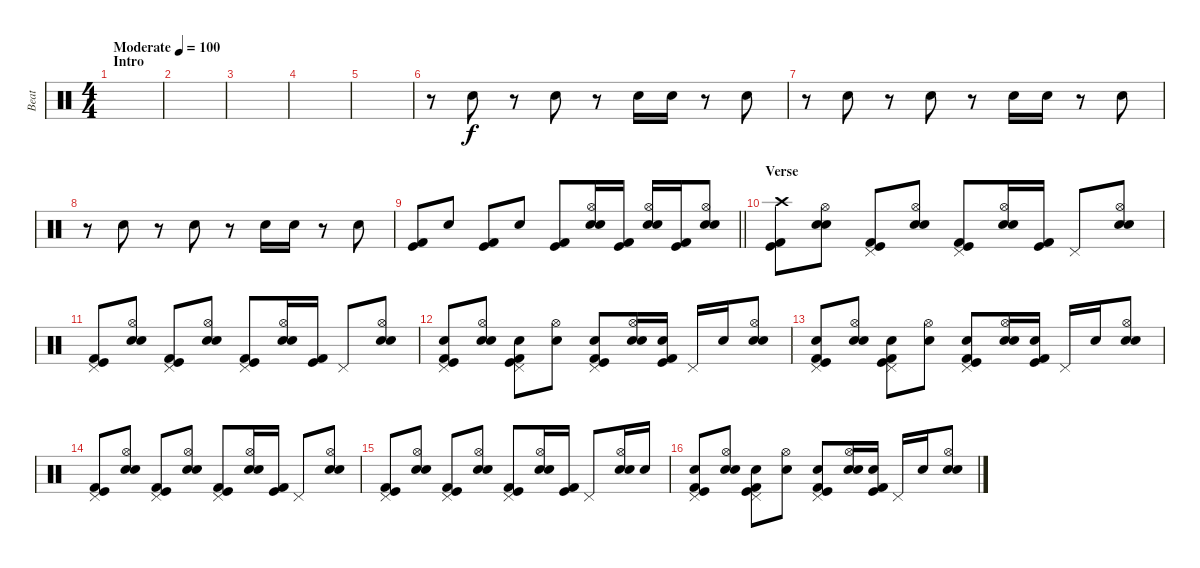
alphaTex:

\track ("Beat" "Beat") {instrument percussion}
\staff {score}
\articulation defaults
\ts (4 4)
\section ("" "Intro")
\tempo (100 "Moderate")
\clef neutral
\ks c
|
|
|
|
|
r.8 "Hand Clap (hit)".8 r.8 "Hand Clap (hit)".8 r.8 "Hand Clap (hit)".16 "Hand Clap (hit)".16 r.8 "Hand Clap (hit)".8 |
r.8 "Hand Clap (hit)".8 r.8 "Hand Clap (hit)".8 r.8 "Hand Clap (hit)".16 "Hand Clap (hit)".16 r.8 "Hand Clap (hit)".8 |
r.8 "Hand Clap (hit)".8 r.8 "Hand Clap (hit)".8 r.8 "Hand Clap (hit)".16 "Hand Clap (hit)".16 r.8 "Hand Clap (hit)".8 |
\barLineRight lightlight
("Kick (hit)" "Kick (hit) 2").8 "Hand Clap (hit)".8 ("Kick (hit)" "Kick (hit) 2").8 "Hand Clap (hit)".8 ("Kick (hit)" "Kick (hit) 2").8 ("Hi-Hat (open)" "Hand Clap (hit)" "Snare (hit) 2").16 ("Kick (hit)" "Kick (hit) 2").16 ("Hi-Hat (open)" "Hand Clap (hit)" "Snare (hit) 2").16 ("Kick (hit)" "Kick (hit) 2").16 ("Hi-Hat (open)" "Hand Clap (hit)" "Snare (hit) 2").8 |
\section ("" "Verse")
("Crash high (hit)" "Kick (hit)" "Kick (hit) 2").8 ("Hi-Hat (open)" "Hand Clap (hit)" "Snare (hit) 2").8 ("Pedal Hi-Hat (hit)" "Kick (hit)" "Kick (hit) 2").8 ("Hi-Hat (open)" "Hand Clap (hit)" "Snare (hit) 2").8 ("Pedal Hi-Hat (hit)" "Kick (hit)" "Kick (hit) 2").8 ("Hi-Hat (open)" "Hand Clap (hit)" "Snare (hit) 2").16 ("Kick (hit)" "Kick (hit) 2").16 "Pedal Hi-Hat (hit)".8 ("Hi-Hat (open)" "Hand Clap (hit)" "Snare (hit) 2").8 |
("Pedal Hi-Hat (hit)" "Kick (hit)" "Kick (hit) 2").8 ("Hi-Hat (open)" "Hand Clap (hit)" "Snare (hit) 2").8 ("Pedal Hi-Hat (hit)" "Kick (hit)" "Kick (hit) 2").8 ("Hi-Hat (open)" "Hand Clap (hit)" "Snare (hit) 2").8 ("Pedal Hi-Hat (hit)" "Kick (hit)" "Kick (hit) 2").8 ("Hi-Hat (open)" "Hand Clap (hit)" "Snare (hit) 2").16 ("Kick (hit)" "Kick (hit) 2").16 "Pedal Hi-Hat (hit)".8 ("Hi-Hat (open)" "Hand Clap (hit)" "Snare (hit) 2").8 |
("Pedal Hi-Hat (hit)" "Hand Clap (hit)" "Kick (hit)" "Kick (hit) 2").8 ("Hi-Hat (open)" "Hand Clap (hit)" "Snare (hit) 2").8 ("Pedal Hi-Hat (hit)" "Hand Clap (hit)" "Kick (hit)" "Kick (hit) 2").8 ("Hi-Hat (open)" "Snare (hit) 2").8 ("Pedal Hi-Hat (hit)" "Hand Clap (hit)" "Kick (hit)" "Kick (hit) 2").8 ("Hi-Hat (open)" "Hand Clap (hit)" "Snare (hit) 2").16 ("Hand Clap (hit)" "Kick (hit)" "Kick (hit) 2").16 "Pedal Hi-Hat (hit)".16 "Hand Clap (hit)".16 ("Hi-Hat (open)" "Hand Clap (hit)" "Snare (hit) 2").8 |
("Pedal Hi-Hat (hit)" "Hand Clap (hit)" "Kick (hit)" "Kick (hit) 2").8 ("Hi-Hat (open)" "Hand Clap (hit)" "Snare (hit) 2").8 ("Pedal Hi-Hat (hit)" "Hand Clap (hit)" "Kick (hit)" "Kick (hit) 2").8 ("Hi-Hat (open)" "Snare (hit) 2").8 ("Pedal Hi-Hat (hit)" "Hand Clap (hit)" "Kick (hit)" "Kick (hit) 2").8 ("Hi-Hat (open)" "Hand Clap (hit)" "Snare (hit) 2").16 ("Hand Clap (hit)" "Kick (hit)" "Kick (hit) 2").16 "Pedal Hi-Hat (hit)".16 "Hand Clap (hit)".16 ("Hi-Hat (open)" "Hand Clap (hit)" "Snare (hit) 2").8 |
("Pedal Hi-Hat (hit)" "Kick (hit)" "Kick (hit) 2").8 ("Hi-Hat (open)" "Hand Clap (hit)" "Snare (hit) 2").8 ("Pedal Hi-Hat (hit)" "Kick (hit)" "Kick (hit) 2").8 ("Hi-Hat (open)" "Hand Clap (hit)" "Snare (hit) 2").8 ("Pedal Hi-Hat (hit)" "Kick (hit)" "Kick (hit) 2").8 ("Hi-Hat (open)" "Hand Clap (hit)" "Snare (hit) 2").16 ("Kick (hit)" "Kick (hit) 2").16 "Pedal Hi-Hat (hit)".8 ("Hi-Hat (open)" "Hand Clap (hit)" "Snare (hit) 2").8 |
("Pedal Hi-Hat (hit)" "Kick (hit)" "Kick (hit) 2").8 ("Hi-Hat (open)" "Hand Clap (hit)" "Snare (hit) 2").8 ("Pedal Hi-Hat (hit)" "Kick (hit)" "Kick (hit) 2").8 ("Hi-Hat (open)" "Hand Clap (hit)" "Snare (hit) 2").8 ("Pedal Hi-Hat (hit)" "Kick (hit)" "Kick (hit) 2").8 ("Hi-Hat (open)" "Hand Clap (hit)" "Snare (hit) 2").16 ("Kick (hit)" "Kick (hit) 2").16 "Pedal Hi-Hat (hit)".8 ("Hi-Hat (open)" "Hand Clap (hit)" "Snare (hit) 2").16 "Hand Clap (hit)".16 |
("Pedal Hi-Hat (hit)" "Hand Clap (hit)" "Kick (hit)" "Kick (hit) 2").8 ("Hi-Hat (open)" "Hand Clap (hit)" "Snare (hit) 2").8 ("Pedal Hi-Hat (hit)" "Hand Clap (hit)" "Kick (hit)" "Kick (hit) 2").8 ("Hi-Hat (open)" "Snare (hit) 2").8 ("Pedal Hi-Hat (hit)" "Hand Clap (hit)" "Kick (hit)" "Kick (hit) 2").8 ("Hi-Hat (open)" "Hand Clap (hit)" "Snare (hit) 2").16 ("Hand Clap (hit)" "Kick (hit)" "Kick (hit) 2").16 "Pedal Hi-Hat (hit)".16 "Hand Clap (hit)".16 ("Hi-Hat (open)" "Hand Clap (hit)" "Snare (hit) 2").8
